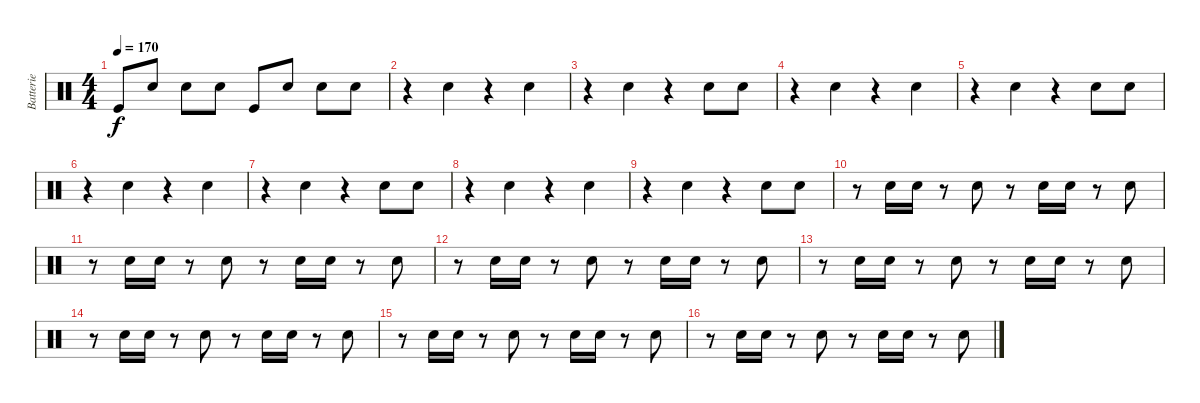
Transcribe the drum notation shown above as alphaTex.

\track ("Batterie" "Batterie") {instrument percussion}
\staff {score}
\articulation defaults
\ts (4 4)
\tempo 170
\clef neutral
\ks c "Kick (hit)".8{dy f} "Hand Clap (hit)".8 "Snare (hit) 2".8 "Hand Clap (hit)".8 "Kick (hit)".8 "Hand Clap (hit)".8 "Snare (hit) 2".8 "Hand Clap (hit)".8
|
r.4 "Snare (hit) 2".4 r.4 "Snare (hit) 2".4 |
r.4 "Snare (hit) 2".4 r.4 "Snare (hit) 2".8 "Snare (hit) 2".8 |
r.4 "Snare (hit) 2".4 r.4 "Snare (hit) 2".4 |
r.4 "Snare (hit) 2".4 r.4 "Snare (hit) 2".8 "Snare (hit) 2".8 |
r.4 "Snare (hit) 2".4 r.4 "Snare (hit) 2".4 |
r.4 "Snare (hit) 2".4 r.4 "Snare (hit) 2".8 "Snare (hit) 2".8 |
r.4 "Snare (hit) 2".4 r.4 "Snare (hit) 2".4 |
r.4 "Snare (hit) 2".4 r.4 "Snare (hit) 2".8 "Snare (hit) 2".8 |
r.8 "Snare (hit) 2".16 "Snare (hit) 2".16 r.8 "Snare (hit) 2".8 r.8 "Snare (hit) 2".16 "Snare (hit) 2".16 r.8 "Snare (hit) 2".8 |
r.8 "Snare (hit) 2".16 "Snare (hit) 2".16 r.8 "Snare (hit) 2".8 r.8 "Snare (hit) 2".16 "Snare (hit) 2".16 r.8 "Snare (hit) 2".8 |
r.8 "Snare (hit) 2".16 "Snare (hit) 2".16 r.8 "Snare (hit) 2".8 r.8 "Snare (hit) 2".16 "Snare (hit) 2".16 r.8 "Snare (hit) 2".8 |
r.8 "Snare (hit) 2".16 "Snare (hit) 2".16 r.8 "Snare (hit) 2".8 r.8 "Snare (hit) 2".16 "Snare (hit) 2".16 r.8 "Snare (hit) 2".8 |
r.8 "Snare (hit) 2".16 "Snare (hit) 2".16 r.8 "Snare (hit) 2".8 r.8 "Snare (hit) 2".16 "Snare (hit) 2".16 r.8 "Snare (hit) 2".8 |
r.8 "Snare (hit) 2".16 "Snare (hit) 2".16 r.8 "Snare (hit) 2".8 r.8 "Snare (hit) 2".16 "Snare (hit) 2".16 r.8 "Snare (hit) 2".8 |
r.8 "Snare (hit) 2".16 "Snare (hit) 2".16 r.8 "Snare (hit) 2".8 r.8 "Snare (hit) 2".16 "Snare (hit) 2".16 r.8 "Snare (hit) 2".8
